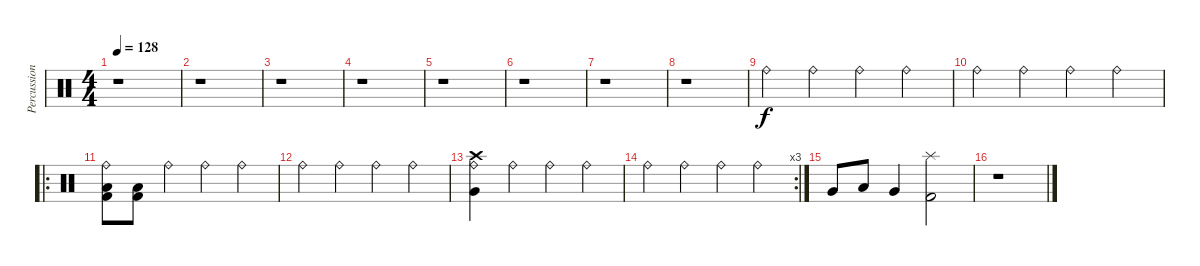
\track ("Percussions" "Percussion") {instrument percussion}
\staff {score}
\articulation defaults
\ts (4 4)
\tempo 128
\clef neutral
\ks c
r.1{dy f} |
r.1 |
r.1 |
r.1 |
r.1 |
r.1 |
r.1 |
r.1 |
"Ride (bell)".4 "Ride (bell)".4 "Ride (bell)".4 "Ride (bell)".4 |
"Ride (bell)".4 "Ride (bell)".4 "Ride (bell)".4 "Ride (bell)".4 |
\ro
("Ride (bell)" "Low Floor Tom (hit)" "Kick (hit) 2").8 ("Low Floor Tom (hit)" "Kick (hit) 2").8 "Ride (bell)".4 "Ride (bell)".4 "Ride (bell)".4 |
"Ride (bell)".4 "Ride (bell)".4 "Ride (bell)".4 "Ride (bell)".4 |
("Ride (bell)" "Very Low Tom (hit)" "Crash high (hit)").4 "Ride (bell)".4 "Ride (bell)".4 "Ride (bell)".4 |
\rc 3 "Ride (bell)".4 "Ride (bell)".4 "Ride (bell)".4 "Ride (bell)".4
|
"Very Low Tom (hit)".8 "Low Tom (hit)".8 "Very Low Tom (hit)".4 ("Kick (hit) 2" "Splash (hit)").2 |
r.1
